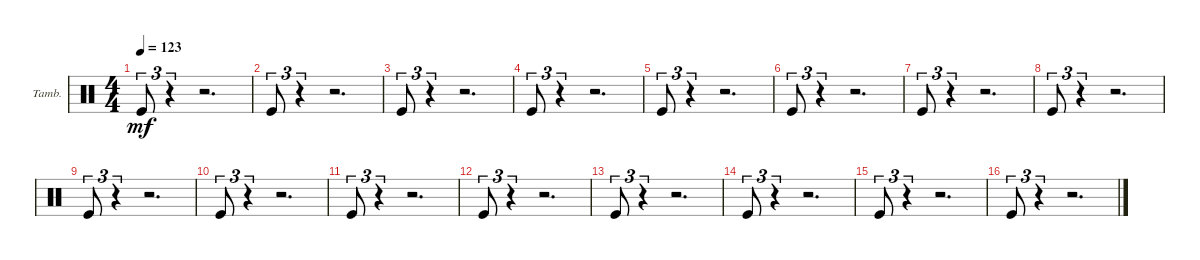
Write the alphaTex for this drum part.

\defaultSystemsLayout 4
\bracketExtendMode groupsimilarinstruments
\firstSystemTrackNameOrientation horizontal
\otherSystemsTrackNameOrientation horizontal
\track ("Tambourine" "Tamb.") {multiBarRest instrument percussion}
\staff {score}
\articulation defaults
\ts (4 4)
\tempo 123
\clef neutral
\ks c "Kick (hit)".8{tu (3 2) dy mf}
r.4{tu (3 2)} r.2{d} |
"Kick (hit)".8{tu (3 2)} r.4{tu (3 2)} r.2{d} |
"Kick (hit)".8{tu (3 2)} r.4{tu (3 2)} r.2{d} |
"Kick (hit)".8{tu (3 2)} r.4{tu (3 2)} r.2{d} |
"Kick (hit)".8{tu (3 2)} r.4{tu (3 2)} r.2{d} |
"Kick (hit)".8{tu (3 2)} r.4{tu (3 2)} r.2{d} |
"Kick (hit)".8{tu (3 2)} r.4{tu (3 2)} r.2{d} |
"Kick (hit)".8{tu (3 2)} r.4{tu (3 2)} r.2{d} |
"Kick (hit)".8{tu (3 2)} r.4{tu (3 2)} r.2{d} |
"Kick (hit)".8{tu (3 2)} r.4{tu (3 2)} r.2{d} |
"Kick (hit)".8{tu (3 2)} r.4{tu (3 2)} r.2{d} |
"Kick (hit)".8{tu (3 2)} r.4{tu (3 2)} r.2{d} |
"Kick (hit)".8{tu (3 2)} r.4{tu (3 2)} r.2{d} |
"Kick (hit)".8{tu (3 2)} r.4{tu (3 2)} r.2{d} |
"Kick (hit)".8{tu (3 2)} r.4{tu (3 2)} r.2{d} |
"Kick (hit)".8{tu (3 2)} r.4{tu (3 2)} r.2{d}
